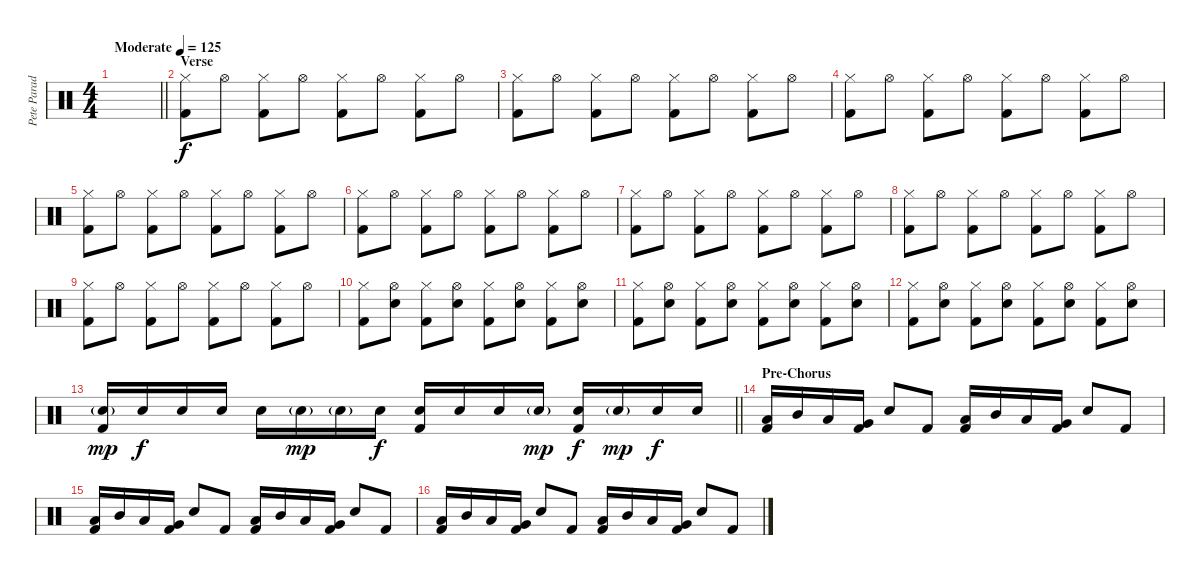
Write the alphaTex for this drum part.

\track ("Pete Parada - Drums" "Pete Parad") {instrument percussion}
\staff {score}
\articulation defaults
\ts (4 4)
\tempo (125 "Moderate")
\clef neutral
\barLineRight lightlight
\ks c
|
\section ("" "Verse")
("Hi-Hat (closed)" "Kick (hit) 2").8 "Hi-Hat (open)".8 ("Hi-Hat (closed)" "Kick (hit) 2").8 "Hi-Hat (open)".8 ("Hi-Hat (closed)" "Kick (hit) 2").8 "Hi-Hat (open)".8 ("Hi-Hat (closed)" "Kick (hit) 2").8 "Hi-Hat (open)".8 |
("Hi-Hat (closed)" "Kick (hit) 2").8 "Hi-Hat (open)".8 ("Hi-Hat (closed)" "Kick (hit) 2").8 "Hi-Hat (open)".8 ("Hi-Hat (closed)" "Kick (hit) 2").8 "Hi-Hat (open)".8 ("Hi-Hat (closed)" "Kick (hit) 2").8 "Hi-Hat (open)".8 |
("Hi-Hat (closed)" "Kick (hit) 2").8 "Hi-Hat (open)".8 ("Hi-Hat (closed)" "Kick (hit) 2").8 "Hi-Hat (open)".8 ("Hi-Hat (closed)" "Kick (hit) 2").8 "Hi-Hat (open)".8 ("Hi-Hat (closed)" "Kick (hit) 2").8 "Hi-Hat (open)".8 |
("Hi-Hat (closed)" "Kick (hit) 2").8 "Hi-Hat (open)".8 ("Hi-Hat (closed)" "Kick (hit) 2").8 "Hi-Hat (open)".8 ("Hi-Hat (closed)" "Kick (hit) 2").8 "Hi-Hat (open)".8 ("Hi-Hat (closed)" "Kick (hit) 2").8 "Hi-Hat (open)".8 |
("Hi-Hat (closed)" "Kick (hit) 2").8 "Hi-Hat (open)".8 ("Hi-Hat (closed)" "Kick (hit) 2").8 "Hi-Hat (open)".8 ("Hi-Hat (closed)" "Kick (hit) 2").8 "Hi-Hat (open)".8 ("Hi-Hat (closed)" "Kick (hit) 2").8 "Hi-Hat (open)".8 |
("Hi-Hat (closed)" "Kick (hit) 2").8 "Hi-Hat (open)".8 ("Hi-Hat (closed)" "Kick (hit) 2").8 "Hi-Hat (open)".8 ("Hi-Hat (closed)" "Kick (hit) 2").8 "Hi-Hat (open)".8 ("Hi-Hat (closed)" "Kick (hit) 2").8 "Hi-Hat (open)".8 |
("Hi-Hat (closed)" "Kick (hit) 2").8 "Hi-Hat (open)".8 ("Hi-Hat (closed)" "Kick (hit) 2").8 "Hi-Hat (open)".8 ("Hi-Hat (closed)" "Kick (hit) 2").8 "Hi-Hat (open)".8 ("Hi-Hat (closed)" "Kick (hit) 2").8 "Hi-Hat (open)".8 |
("Hi-Hat (closed)" "Kick (hit) 2").8 "Hi-Hat (open)".8 ("Hi-Hat (closed)" "Kick (hit) 2").8 "Hi-Hat (open)".8 ("Hi-Hat (closed)" "Kick (hit) 2").8 "Hi-Hat (open)".8 ("Hi-Hat (closed)" "Kick (hit) 2").8 "Hi-Hat (open)".8 |
("Hi-Hat (closed)" "Kick (hit) 2").8 ("Hi-Hat (open)" "Electric Snare (hit)").8 ("Hi-Hat (closed)" "Kick (hit) 2").8 ("Hi-Hat (open)" "Electric Snare (hit)").8 ("Hi-Hat (closed)" "Kick (hit) 2").8 ("Hi-Hat (open)" "Electric Snare (hit)").8 ("Hi-Hat (closed)" "Kick (hit) 2").8 ("Hi-Hat (open)" "Electric Snare (hit)").8 |
("Hi-Hat (closed)" "Kick (hit) 2").8 ("Hi-Hat (open)" "Electric Snare (hit)").8 ("Hi-Hat (closed)" "Kick (hit) 2").8 ("Hi-Hat (open)" "Electric Snare (hit)").8 ("Hi-Hat (closed)" "Kick (hit) 2").8 ("Hi-Hat (open)" "Electric Snare (hit)").8 ("Hi-Hat (closed)" "Kick (hit) 2").8 ("Hi-Hat (open)" "Electric Snare (hit)").8 |
("Hi-Hat (closed)" "Kick (hit) 2").8 ("Hi-Hat (open)" "Electric Snare (hit)").8 ("Hi-Hat (closed)" "Kick (hit) 2").8 ("Hi-Hat (open)" "Electric Snare (hit)").8 ("Hi-Hat (closed)" "Kick (hit) 2").8 ("Hi-Hat (open)" "Electric Snare (hit)").8 ("Hi-Hat (closed)" "Kick (hit) 2").8 ("Hi-Hat (open)" "Electric Snare (hit)").8 |
\barLineRight lightlight
("Electric Snare (hit)"{g} "Kick (hit) 2").16{dy mp} "Electric Snare (hit)".16{dy f} "Electric Snare (hit)".16 "Electric Snare (hit)".16 "Electric Snare (hit)".16 "Electric Snare (hit)"{g}.16{dy mp} "Electric Snare (hit)"{g}.16 "Electric Snare (hit)".16{dy f} ("Electric Snare (hit)" "Kick (hit) 2").16 "Electric Snare (hit)".16 "Electric Snare (hit)".16 "Electric Snare (hit)"{g}.16{dy mp} ("Electric Snare (hit)" "Kick (hit) 2").16{dy f} "Electric Snare (hit)"{g}.16{dy mp} "Electric Snare (hit)".16{dy f} "Electric Snare (hit)".16 |
\section ("" "Pre-Chorus")
("Low Tom (hit)" "Kick (hit) 2").16 "Mid Tom (hit)".16 "Low Tom (hit)".16 ("Very Low Tom (hit)" "Kick (hit) 2").16 "Electric Snare (hit)".8 "Kick (hit) 2".8 ("Low Tom (hit)" "Kick (hit) 2").16 "Mid Tom (hit)".16 "Low Tom (hit)".16 ("Very Low Tom (hit)" "Kick (hit) 2").16 "Electric Snare (hit)".8 "Kick (hit) 2".8 |
("Low Tom (hit)" "Kick (hit) 2").16 "Mid Tom (hit)".16 "Low Tom (hit)".16 ("Very Low Tom (hit)" "Kick (hit) 2").16 "Electric Snare (hit)".8 "Kick (hit) 2".8 ("Low Tom (hit)" "Kick (hit) 2").16 "Mid Tom (hit)".16 "Low Tom (hit)".16 ("Very Low Tom (hit)" "Kick (hit) 2").16 "Electric Snare (hit)".8 "Kick (hit) 2".8 |
("Low Tom (hit)" "Kick (hit) 2").16 "Mid Tom (hit)".16 "Low Tom (hit)".16 ("Very Low Tom (hit)" "Kick (hit) 2").16 "Electric Snare (hit)".8 "Kick (hit) 2".8 ("Low Tom (hit)" "Kick (hit) 2").16 "Mid Tom (hit)".16 "Low Tom (hit)".16 ("Very Low Tom (hit)" "Kick (hit) 2").16 "Electric Snare (hit)".8 "Kick (hit) 2".8
